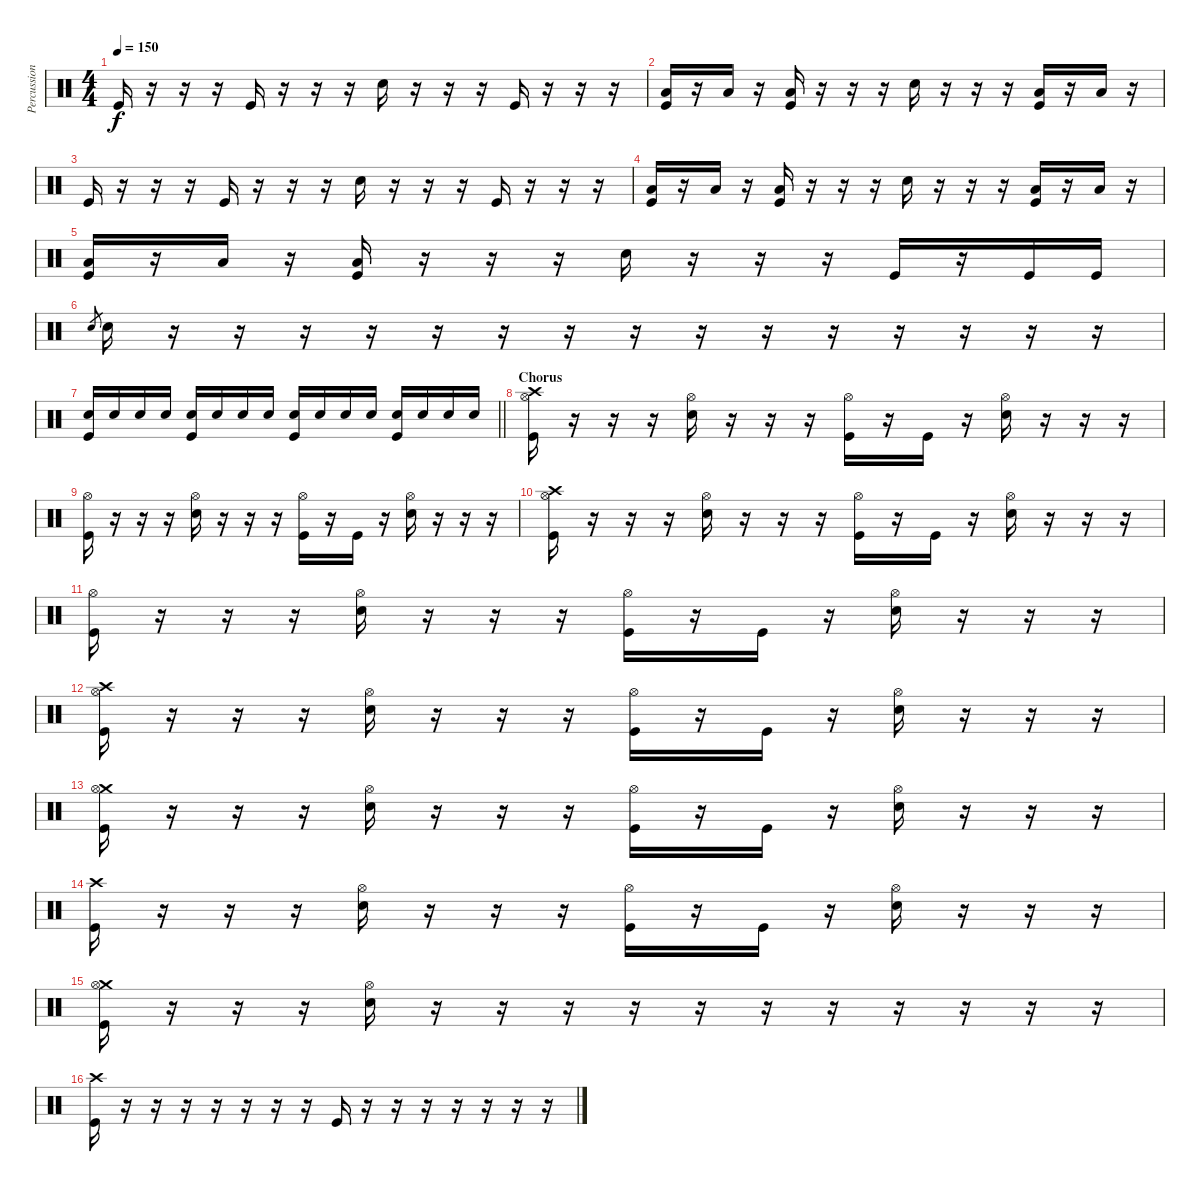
\track ("Percussion" "Percussion") {instrument percussion}
\staff {score}
\articulation defaults
\ts (4 4)
\tempo 150
\clef neutral
\ks c "Kick (hit)".16{dy f}
r.16 r.16 r.16 "Kick (hit)".16 r.16 r.16 r.16 "Electric Snare (hit)".16 r.16 r.16 r.16 "Kick (hit)".16 r.16 r.16 r.16 |
("Low Floor Tom (hit)" "Kick (hit)").16 r.16 "Low Tom (hit)".16 r.16 ("Low Floor Tom (hit)" "Kick (hit)").16 r.16 r.16 r.16 "Electric Snare (hit)".16 r.16 r.16 r.16 ("Low Floor Tom (hit)" "Kick (hit)").16 r.16 "Low Tom (hit)".16 r.16 |
"Kick (hit)".16 r.16 r.16 r.16 "Kick (hit)".16 r.16 r.16 r.16 "Electric Snare (hit)".16 r.16 r.16 r.16 "Kick (hit)".16 r.16 r.16 r.16 |
("Low Floor Tom (hit)" "Kick (hit)").16 r.16 "Low Tom (hit)".16 r.16 ("Low Floor Tom (hit)" "Kick (hit)").16 r.16 r.16 r.16 "Electric Snare (hit)".16 r.16 r.16 r.16 ("Low Floor Tom (hit)" "Kick (hit)").16 r.16 "Low Tom (hit)".16 r.16 |
("Low Floor Tom (hit)" "Kick (hit)").16 r.16 "Low Tom (hit)".16 r.16 ("Low Floor Tom (hit)" "Kick (hit)").16 r.16 r.16 r.16 "Electric Snare (hit)".16 r.16 r.16 r.16 "Kick (hit)".16 r.16 "Kick (hit)".16 "Kick (hit)".16 |
"Electric Snare (hit)".8{gr} "Electric Snare (hit)".16 r.16 r.16 r.16 r.16 r.16 r.16 r.16 r.16 r.16 r.16 r.16 r.16 r.16 r.16 r.16 |
\barLineRight lightlight
("Electric Snare (hit)" "Kick (hit)").16 "Electric Snare (hit)".16 "Electric Snare (hit)".16 "Electric Snare (hit)".16 ("Electric Snare (hit)" "Kick (hit)").16 "Electric Snare (hit)".16 "Electric Snare (hit)".16 "Electric Snare (hit)".16 ("Electric Snare (hit)" "Kick (hit)").16 "Electric Snare (hit)".16 "Electric Snare (hit)".16 "Electric Snare (hit)".16 ("Electric Snare (hit)" "Kick (hit)").16 "Electric Snare (hit)".16 "Electric Snare (hit)".16 "Electric Snare (hit)".16 |
\section ("" "Chorus")
("Crash high (hit)" "Hi-Hat (open)" "Kick (hit)").16 r.16 r.16 r.16 ("Hi-Hat (open)" "Electric Snare (hit)").16 r.16 r.16 r.16 ("Hi-Hat (open)" "Kick (hit)").16 r.16 "Kick (hit)".16 r.16 ("Hi-Hat (open)" "Electric Snare (hit)").16 r.16 r.16 r.16 |
("Hi-Hat (open)" "Kick (hit)").16 r.16 r.16 r.16 ("Hi-Hat (open)" "Electric Snare (hit)").16 r.16 r.16 r.16 ("Hi-Hat (open)" "Kick (hit)").16 r.16 "Kick (hit)".16 r.16 ("Hi-Hat (open)" "Electric Snare (hit)").16 r.16 r.16 r.16 |
("Crash high (hit)" "Hi-Hat (open)" "Kick (hit)").16 r.16 r.16 r.16 ("Hi-Hat (open)" "Electric Snare (hit)").16 r.16 r.16 r.16 ("Hi-Hat (open)" "Kick (hit)").16 r.16 "Kick (hit)".16 r.16 ("Hi-Hat (open)" "Electric Snare (hit)").16 r.16 r.16 r.16 |
("Hi-Hat (open)" "Kick (hit)").16 r.16 r.16 r.16 ("Hi-Hat (open)" "Electric Snare (hit)").16 r.16 r.16 r.16 ("Hi-Hat (open)" "Kick (hit)").16 r.16 "Kick (hit)".16 r.16 ("Hi-Hat (open)" "Electric Snare (hit)").16 r.16 r.16 r.16 |
("Crash high (hit)" "Hi-Hat (open)" "Kick (hit)").16 r.16 r.16 r.16 ("Hi-Hat (open)" "Electric Snare (hit)").16 r.16 r.16 r.16 ("Hi-Hat (open)" "Kick (hit)").16 r.16 "Kick (hit)".16 r.16 ("Hi-Hat (open)" "Electric Snare (hit)").16 r.16 r.16 r.16 |
("Crash medium (hit)" "Hi-Hat (open)" "Kick (hit)").16 r.16 r.16 r.16 ("Hi-Hat (open)" "Electric Snare (hit)").16 r.16 r.16 r.16 ("Hi-Hat (open)" "Kick (hit)").16 r.16 "Kick (hit)".16 r.16 ("Hi-Hat (open)" "Electric Snare (hit)").16 r.16 r.16 r.16 |
("Crash high (hit)" "Kick (hit)").16 r.16 r.16 r.16 ("Hi-Hat (open)" "Electric Snare (hit)").16 r.16 r.16 r.16 ("Hi-Hat (open)" "Kick (hit)").16 r.16 "Kick (hit)".16 r.16 ("Hi-Hat (open)" "Electric Snare (hit)").16 r.16 r.16 r.16 |
("Crash medium (hit)" "Hi-Hat (open)" "Kick (hit)").16 r.16 r.16 r.16 ("Hi-Hat (open)" "Electric Snare (hit)").16 r.16 r.16 r.16 r.16 r.16 r.16 r.16 r.16 r.16 r.16 r.16 |
("Crash high (hit)" "Kick (hit)").16 r.16 r.16 r.16 r.16 r.16 r.16 r.16 "Kick (hit)".16 r.16 r.16 r.16 r.16 r.16 r.16 r.16
